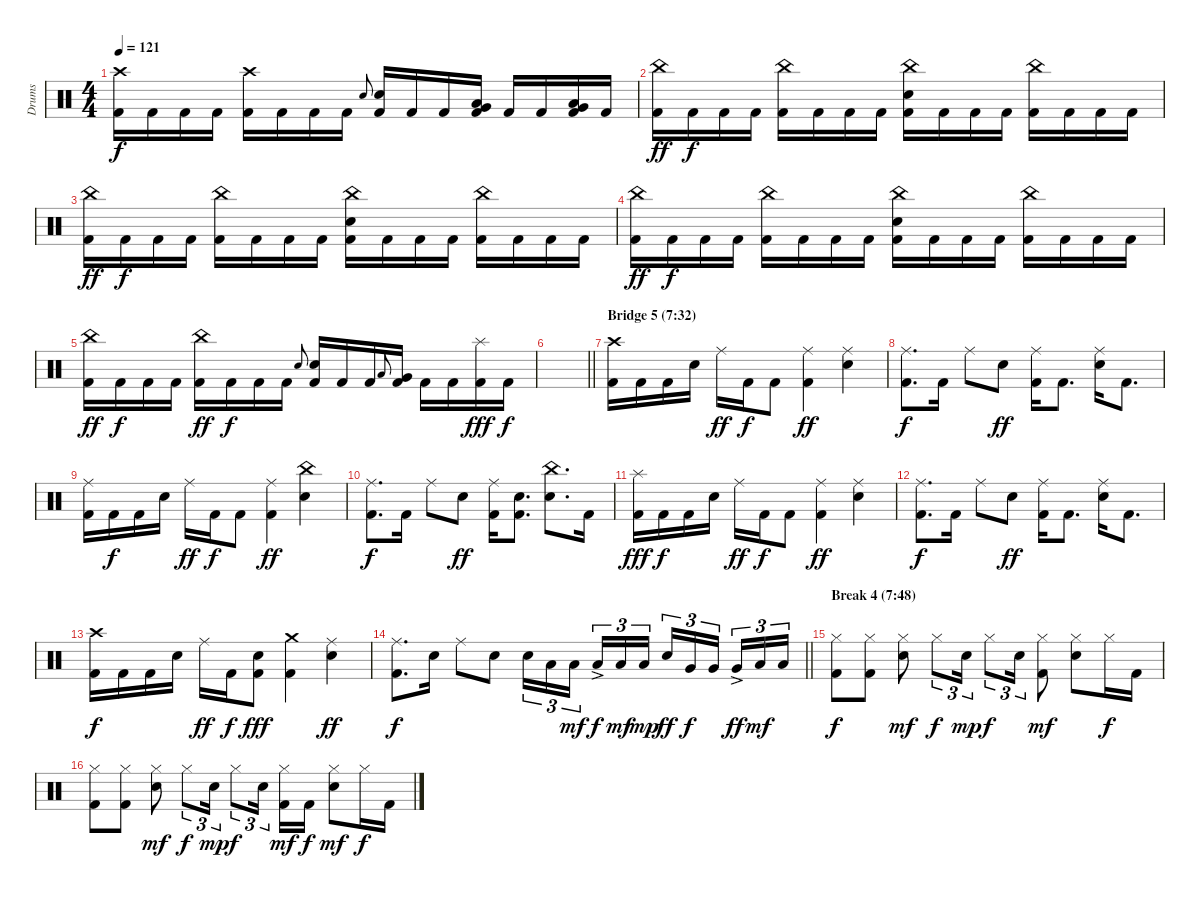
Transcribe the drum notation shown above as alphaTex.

\track ("Drums" "Drums") {instrument percussion}
\staff {score}
\articulation defaults
\ts (4 4)
\tempo 121
\clef neutral
\ks c
("Crash high (hit)" "Kick (hit) 2").16{dy f} "Kick (hit) 2".16 "Kick (hit) 2".16 "Kick (hit) 2".16 ("Crash high (hit)" "Kick (hit) 2").16 "Kick (hit) 2".16 "Kick (hit) 2".16 "Kick (hit) 2".16 "Electric Snare (hit)".8{gr onbeat} ("Electric Snare (hit)" "Kick (hit) 2").16 "Kick (hit) 2".16 "Kick (hit) 2".16 ("Low Tom (hit)" "Very Low Tom (hit)" "Kick (hit) 2").16 "Kick (hit) 2".16 "Kick (hit) 2".16 ("Very Low Tom (hit)" "Low Floor Tom (hit)" "Kick (hit) 2").16 "Kick (hit) 2".16 |
("China (hit)" "Kick (hit) 2").16{dy ff} "Kick (hit) 2".16{dy f} "Kick (hit) 2".16 "Kick (hit) 2".16 ("China (hit)" "Kick (hit) 2").16 "Kick (hit) 2".16 "Kick (hit) 2".16 "Kick (hit) 2".16 ("China (hit)" "Electric Snare (hit)" "Kick (hit) 2").16 "Kick (hit) 2".16 "Kick (hit) 2".16 "Kick (hit) 2".16 ("China (hit)" "Kick (hit) 2").16 "Kick (hit) 2".16 "Kick (hit) 2".16 "Kick (hit) 2".16 |
("China (hit)" "Kick (hit) 2").16{dy ff} "Kick (hit) 2".16{dy f} "Kick (hit) 2".16 "Kick (hit) 2".16 ("China (hit)" "Kick (hit) 2").16 "Kick (hit) 2".16 "Kick (hit) 2".16 "Kick (hit) 2".16 ("China (hit)" "Electric Snare (hit)" "Kick (hit) 2").16 "Kick (hit) 2".16 "Kick (hit) 2".16 "Kick (hit) 2".16 ("China (hit)" "Kick (hit) 2").16 "Kick (hit) 2".16 "Kick (hit) 2".16 "Kick (hit) 2".16 |
("China (hit)" "Kick (hit) 2").16{dy ff} "Kick (hit) 2".16{dy f} "Kick (hit) 2".16 "Kick (hit) 2".16 ("China (hit)" "Kick (hit) 2").16 "Kick (hit) 2".16 "Kick (hit) 2".16 "Kick (hit) 2".16 ("China (hit)" "Electric Snare (hit)" "Kick (hit) 2").16 "Kick (hit) 2".16 "Kick (hit) 2".16 "Kick (hit) 2".16 ("China (hit)" "Kick (hit) 2").16 "Kick (hit) 2".16 "Kick (hit) 2".16 "Kick (hit) 2".16 |
("China (hit)" "Kick (hit) 2").16{dy ff} "Kick (hit) 2".16{dy f} "Kick (hit) 2".16 "Kick (hit) 2".16 ("China (hit)" "Kick (hit) 2").16{dy ff} "Kick (hit) 2".16{dy f} "Kick (hit) 2".16 "Kick (hit) 2".16 "Electric Snare (hit)".8{gr onbeat} ("Electric Snare (hit)" "Kick (hit) 2").16 "Kick (hit) 2".16 "Kick (hit) 2".16 "Low Tom (hit)".8{gr onbeat} ("Very Low Tom (hit)" "Kick (hit) 2").16 "Kick (hit) 2".16 "Kick (hit) 2".16 ("Splash (hit)" "Kick (hit) 2").16{dy fff} "Kick (hit) 2".16{dy f} |
\barLineRight lightlight
|
\section ("" "Bridge 5 (7:32)")
("Crash high (hit)" "Kick (hit) 2").16 "Kick (hit) 2".16 "Kick (hit) 2".16 "Electric Snare (hit)".16 "Ride (middle)".16{dy ff} "Kick (hit) 2".16{dy f} "Kick (hit) 2".8 ("Ride (middle)" "Kick (hit) 2").4{dy ff} ("Ride (middle)" "Electric Snare (hit)").4 |
("Ride (middle)" "Kick (hit) 2").8{d dy f} "Kick (hit) 2".16 "Ride (middle)".8 "Electric Snare (hit)".8{dy ff} ("Ride (middle)" "Kick (hit) 2").16 "Kick (hit) 2".8{d} ("Ride (middle)" "Electric Snare (hit)").16 "Kick (hit) 2".8{d} |
("Ride (middle)" "Kick (hit) 2").16 "Kick (hit) 2".16{dy f} "Kick (hit) 2".16 "Electric Snare (hit)".16 "Ride (middle)".16{dy ff} "Kick (hit) 2".16{dy f} "Kick (hit) 2".8 ("Ride (middle)" "Kick (hit) 2").4{dy ff} ("China (hit)" "Electric Snare (hit)").4 |
("Ride (middle)" "Kick (hit) 2").8{d dy f} "Kick (hit) 2".16 "Ride (middle)".8 "Electric Snare (hit)".8{dy ff} ("Ride (middle)" "Kick (hit) 2").16 ("Electric Snare (hit)" "Kick (hit) 2").8{d} ("China (hit)" "Electric Snare (hit)").8{d} "Kick (hit) 2".16 |
("Splash (hit)" "Kick (hit) 2").16{dy fff} "Kick (hit) 2".16{dy f} "Kick (hit) 2".16 "Electric Snare (hit)".16 "Ride (middle)".16{dy ff} "Kick (hit) 2".16{dy f} "Kick (hit) 2".8 ("Ride (middle)" "Kick (hit) 2").4{dy ff} ("Ride (middle)" "Electric Snare (hit)").4 |
("Ride (middle)" "Kick (hit) 2").8{d dy f} "Kick (hit) 2".16 "Ride (middle)".8 "Electric Snare (hit)".8{dy ff} ("Ride (middle)" "Kick (hit) 2").16 "Kick (hit) 2".8{d} ("Ride (middle)" "Electric Snare (hit)").16 "Kick (hit) 2".8{d} |
("Crash high (hit)" "Kick (hit) 2").16{dy f} "Kick (hit) 2".16 "Kick (hit) 2".16 "Electric Snare (hit)".16 "Ride (middle)".16{dy ff} "Kick (hit) 2".16{dy f} ("Electric Snare (hit)" "Kick (hit) 2").8{dy fff} ("Crash medium (hit)" "Kick (hit) 2").4 ("Ride (middle)" "Electric Snare (hit)").4{dy ff} |
\barLineRight lightlight
("Ride (middle)" "Kick (hit) 2").8{d dy f} "Electric Snare (hit)".16 "Ride (middle)".8 "Electric Snare (hit)".8 "Electric Snare (hit)".16{tu (3 2)} "Low Tom (hit)".16{tu (3 2)} "Low Tom (hit)".16{tu (3 2) dy mf beam splitsecondary} "Low Tom (hit)"{ac}.16{tu (3 2) dy f} "Low Tom (hit)".16{tu (3 2) dy mf} "Low Tom (hit)".16{tu (3 2) dy mp} "Electric Snare (hit)".16{tu (3 2) dy ff} "Very Low Tom (hit)".16{tu (3 2) dy f} "Very Low Tom (hit)".16{tu (3 2) beam splitsecondary} "Very Low Tom (hit)"{ac}.16{tu (3 2) dy ff} "Low Floor Tom (hit)".16{tu (3 2) dy mf} "Low Floor Tom (hit)".16{tu (3 2)} |
\section ("" "Break 4 (7:48)")
("Hi-Hat (closed)" "Kick (hit) 2").8{dy f volume 8} ("Hi-Hat (closed)" "Kick (hit) 2").8 ("Hi-Hat (closed)" "Electric Snare (hit)").8{dy mf} "Hi-Hat (closed)".8{tu (3 2) dy f} "Electric Snare (hit)".16{tu (3 2) dy mp} "Hi-Hat (closed)".8{tu (3 2) dy f} "Electric Snare (hit)".16{tu (3 2)} ("Hi-Hat (closed)" "Kick (hit) 2").8{dy mf} ("Hi-Hat (closed)" "Electric Snare (hit)").8 "Hi-Hat (closed)".16{dy f} "Kick (hit) 2".16 |
("Hi-Hat (closed)" "Kick (hit) 2").8 ("Hi-Hat (closed)" "Kick (hit) 2").8 ("Hi-Hat (closed)" "Electric Snare (hit)").8{dy mf} "Hi-Hat (closed)".8{tu (3 2) dy f} "Electric Snare (hit)".16{tu (3 2) dy mp} "Hi-Hat (closed)".8{tu (3 2) dy f} "Electric Snare (hit)".16{tu (3 2) beam splitsecondary} ("Hi-Hat (closed)" "Kick (hit) 2").16{dy mf} "Kick (hit) 2".16{dy f} ("Hi-Hat (closed)" "Electric Snare (hit)").8{dy mf} "Hi-Hat (closed)".16{dy f} "Kick (hit) 2".16
